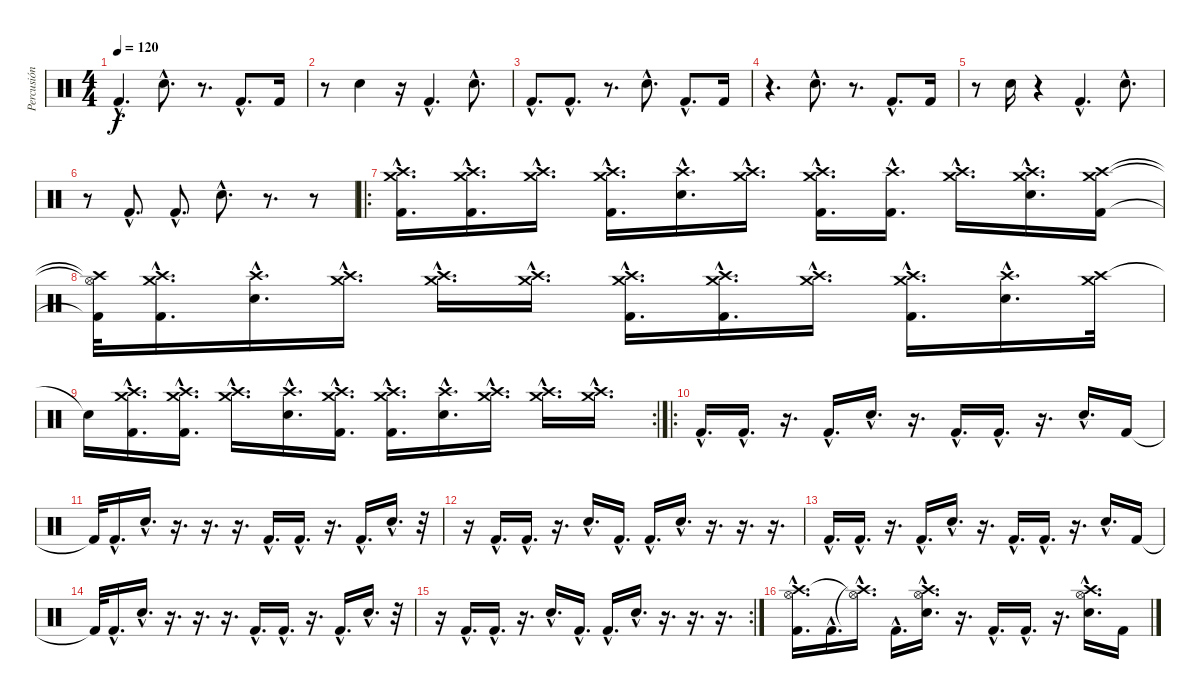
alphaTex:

\track ("Percusión" "Percusión") {instrument percussion}
\staff {score}
\articulation defaults
\ts (4 4)
\tempo 120
\clef neutral
\ks c "Kick (hit) 2"{hac}.4{d dy f} "Electric Snare (hit)"{hac}.8{d}
r.8{d} "Kick (hit) 2"{hac}.8{d} "Kick (hit) 2".16 |
r.8 "Electric Snare (hit)".4 r.16 "Kick (hit) 2"{hac}.4{d} "Electric Snare (hit)"{hac}.8{d} |
"Kick (hit) 2"{hac}.8{d} "Kick (hit) 2"{hac}.8{d} r.8{d} "Electric Snare (hit)"{hac}.8{d} "Kick (hit) 2"{hac}.8{d} "Kick (hit) 2".16 |
r.4{d} "Electric Snare (hit)"{hac}.8{d} r.8{d} "Kick (hit) 2"{hac}.8{d} "Kick (hit) 2".16 |
r.8 "Electric Snare (hit)".16 r.4 "Kick (hit) 2"{hac}.4{d} "Electric Snare (hit)"{hac}.8{d} |
r.8 "Kick (hit) 2"{hac}.8{d} "Kick (hit) 2"{hac}.8{d} "Electric Snare (hit)"{hac}.8{d} r.8{d} r.8 |
\ro
("Kick (hit) 2"{hac} "Crash high (hit)"{hac} "Crash medium (hit)"{hac}).16{d} ("Kick (hit) 2"{hac} "Crash high (hit)"{hac} "Crash medium (hit)"{hac}).16{d} ("Crash high (hit)"{hac} "Crash medium (hit)"{hac}).16{d} ("Kick (hit) 2"{hac} "Crash high (hit)"{hac} "Crash medium (hit)"{hac}).16{d} ("Electric Snare (hit)"{hac} "Crash high (hit)"{hac}).16{d} ("Crash medium (hit)"{hac} "Crash high (hit)"{hac}).16{d} ("Kick (hit) 2"{hac} "Crash high (hit)"{hac} "Crash medium (hit)"{hac}).16{d} ("Kick (hit) 2"{hac} "Crash high (hit)"{hac}).16{d} ("Crash high (hit)"{hac} "Crash medium (hit)"{hac}).16{d} ("Electric Snare (hit)"{hac} "Crash high (hit)"{hac} "Crash medium (hit)"{hac}).16{d} ("Kick (hit) 2" "Crash high (hit)" "Crash medium (hit)").16 |
("Kick (hit) 2"{t} "Crash high (hit)"{t} "Hi-Hat (open)"{t}).32 ("Kick (hit) 2"{hac} "Crash high (hit)"{hac} "Crash medium (hit)"{hac}).16{d} ("Electric Snare (hit)"{hac} "Crash high (hit)"{hac}).16{d} ("Crash high (hit)"{hac} "Crash medium (hit)"{hac}).16{d} ("Crash high (hit)"{hac} "Crash medium (hit)"{hac}).16{d} ("Crash high (hit)"{hac} "Crash medium (hit)"{hac}).16{d} ("Kick (hit) 2"{hac} "Crash high (hit)"{hac} "Crash medium (hit)"{hac}).16{d} ("Kick (hit) 2"{hac} "Crash high (hit)"{hac} "Crash medium (hit)"{hac}).16{d} ("Crash high (hit)"{hac} "Crash medium (hit)"{hac}).16{d} ("Kick (hit) 2"{hac} "Crash high (hit)"{hac} "Crash medium (hit)"{hac}).16{d} ("Electric Snare (hit)"{hac} "Crash high (hit)"{hac}).16{d} ("Crash high (hit)" "Crash medium (hit)").32 |
\rc 2 "Snare (hit)"{t}.16
("Kick (hit) 2"{hac} "Crash high (hit)"{hac} "Crash medium (hit)"{hac}).16{d} ("Kick (hit) 2"{hac} "Crash high (hit)"{hac} "Crash medium (hit)"{hac}).16{d} ("Crash high (hit)"{hac} "Crash medium (hit)"{hac}).16{d} ("Electric Snare (hit)"{hac} "Crash high (hit)"{hac}).16{d} ("Kick (hit) 2"{hac} "Crash high (hit)"{hac} "Crash medium (hit)"{hac}).16{d} ("Kick (hit) 2"{hac} "Crash high (hit)"{hac} "Crash medium (hit)"{hac}).16{d} ("Electric Snare (hit)"{hac} "Crash high (hit)"{hac}).16{d} ("Crash high (hit)"{hac} "Crash medium (hit)"{hac}).16{d} ("Crash high (hit)"{hac} "Crash medium (hit)"{hac}).16{d} ("Crash high (hit)"{hac} "Crash medium (hit)"{hac}).16{d} |
\ro "Kick (hit) 2"{hac}.16{d} "Kick (hit) 2"{hac}.16{d}
r.16{d} "Kick (hit) 2"{hac}.16{d} "Electric Snare (hit)"{hac}.16{d} r.16{d} "Kick (hit) 2"{hac}.16{d} "Kick (hit) 2"{hac}.16{d} r.16{d} "Electric Snare (hit)"{hac}.16{d} "Kick (hit) 2".16 |
"Kick (hit) 2"{t}.32 "Kick (hit) 2"{hac}.16{d} "Electric Snare (hit)"{hac}.16{d} r.16{d} r.16{d} r.16{d} "Kick (hit) 2"{hac}.16{d} "Kick (hit) 2"{hac}.16{d} r.16{d} "Kick (hit) 2"{hac}.16{d} "Electric Snare (hit)"{hac}.16{d} r.32 |
r.16 "Kick (hit) 2"{hac}.16{d} "Kick (hit) 2"{hac}.16{d} r.16{d} "Electric Snare (hit)"{hac}.16{d} "Kick (hit) 2"{hac}.16{d} "Kick (hit) 2"{hac}.16{d} "Electric Snare (hit)"{hac}.16{d} r.16{d} r.16{d} r.16{d} |
"Kick (hit) 2"{hac}.16{d} "Kick (hit) 2"{hac}.16{d} r.16{d} "Kick (hit) 2"{hac}.16{d} "Electric Snare (hit)"{hac}.16{d} r.16{d} "Kick (hit) 2"{hac}.16{d} "Kick (hit) 2"{hac}.16{d} r.16{d} "Electric Snare (hit)"{hac}.16{d} "Kick (hit) 2".16 |
"Kick (hit) 2"{t}.32 "Kick (hit) 2"{hac}.16{d} "Electric Snare (hit)"{hac}.16{d} r.16{d} r.16{d} r.16{d} "Kick (hit) 2"{hac}.16{d} "Kick (hit) 2"{hac}.16{d} r.16{d} "Kick (hit) 2"{hac}.16{d} "Electric Snare (hit)"{hac}.16{d} r.32 |
\rc 2
r.16 "Kick (hit) 2"{hac}.16{d} "Kick (hit) 2"{hac}.16{d} r.16{d} "Electric Snare (hit)"{hac}.16{d} "Kick (hit) 2"{hac}.16{d} "Kick (hit) 2"{hac}.16{d} "Electric Snare (hit)"{hac}.16{d} r.16{d} r.16{d} r.16{d} |
("Kick (hit) 2"{hac} "Crash high (hit)"{hac} "Hi-Hat (open)"{hac}).16{d} "Kick (hit) 2"{hac}.16{d} ("Crash high (hit)"{hac t} "Hi-Hat (open)"{hac t}).16{d} "Kick (hit) 2"{hac}.16{d} ("Electric Snare (hit)"{hac} "Hi-Hat (open)"{hac} "Crash high (hit)"{hac}).16{d} r.16{d} "Kick (hit) 2"{hac}.16{d} "Kick (hit) 2"{hac}.16{d} r.16{d} ("Electric Snare (hit)"{hac} "Hi-Hat (open)"{hac} "Crash high (hit)"{hac}).16{d} "Kick (hit) 2".16
